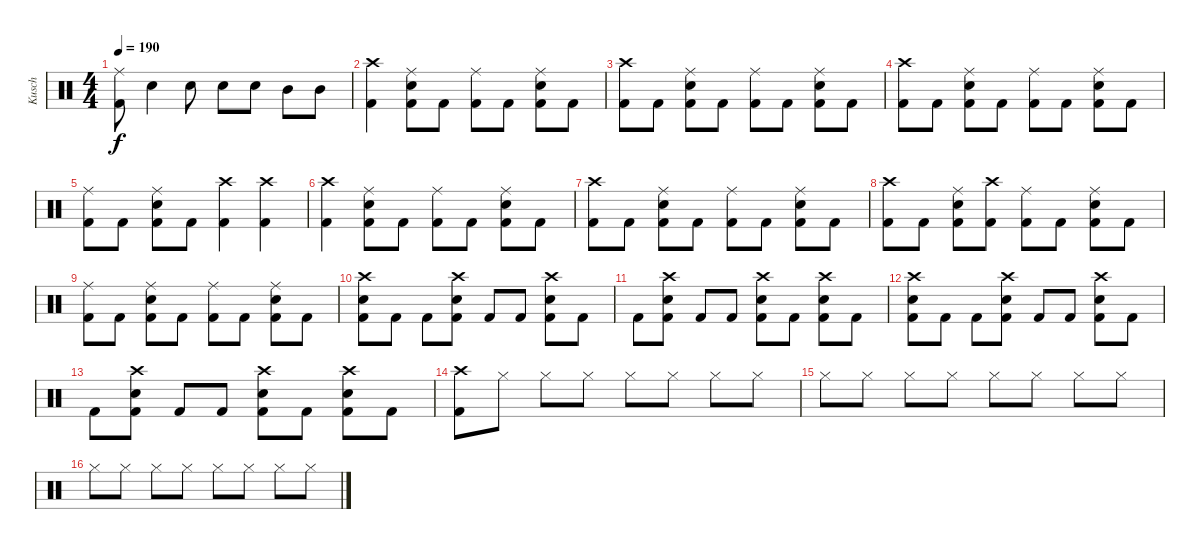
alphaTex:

\track ("Kusch" "Kusch") {instrument percussion}
\staff {score}
\articulation defaults
\ts (4 4)
\tempo 190
\clef neutral
\ks c
("Ride (middle)" "Kick (hit) 2").8{dy f} "Electric Snare (hit)".4 "Electric Snare (hit)".8 "Electric Snare (hit)".8 "Electric Snare (hit)".8 "Mid Tom (hit)".8 "Mid Tom (hit)".8 |
("Crash high (hit)" "Kick (hit) 2").4 ("Ride (middle)" "Electric Snare (hit)" "Kick (hit) 2").8 "Kick (hit) 2".8 ("Ride (middle)" "Kick (hit) 2").8 "Kick (hit) 2".8 ("Ride (middle)" "Electric Snare (hit)" "Kick (hit) 2").8 "Kick (hit) 2".8 |
("Crash high (hit)" "Kick (hit) 2").8 "Kick (hit) 2".8 ("Ride (middle)" "Electric Snare (hit)" "Kick (hit) 2").8 "Kick (hit) 2".8 ("Ride (middle)" "Kick (hit) 2").8 "Kick (hit) 2".8 ("Ride (middle)" "Electric Snare (hit)" "Kick (hit) 2").8 "Kick (hit) 2".8 |
("Crash high (hit)" "Kick (hit) 2").8 "Kick (hit) 2".8 ("Ride (middle)" "Electric Snare (hit)" "Kick (hit) 2").8 "Kick (hit) 2".8 ("Ride (middle)" "Kick (hit) 2").8 "Kick (hit) 2".8 ("Ride (middle)" "Electric Snare (hit)" "Kick (hit) 2").8 "Kick (hit) 2".8 |
("Ride (middle)" "Kick (hit) 2").8 "Kick (hit) 2".8 ("Ride (middle)" "Electric Snare (hit)" "Kick (hit) 2").8 "Kick (hit) 2".8 ("Crash high (hit)" "Kick (hit) 2").4 ("Crash high (hit)" "Kick (hit) 2").4 |
("Crash high (hit)" "Kick (hit) 2").4 ("Ride (middle)" "Electric Snare (hit)" "Kick (hit) 2").8 "Kick (hit) 2".8 ("Ride (middle)" "Kick (hit) 2").8 "Kick (hit) 2".8 ("Ride (middle)" "Electric Snare (hit)" "Kick (hit) 2").8 "Kick (hit) 2".8 |
("Crash high (hit)" "Kick (hit) 2").8 "Kick (hit) 2".8 ("Ride (middle)" "Electric Snare (hit)" "Kick (hit) 2").8 "Kick (hit) 2".8 ("Ride (middle)" "Kick (hit) 2").8 "Kick (hit) 2".8 ("Ride (middle)" "Electric Snare (hit)" "Kick (hit) 2").8 "Kick (hit) 2".8 |
("Crash high (hit)" "Kick (hit) 2").8 "Kick (hit) 2".8 ("Ride (middle)" "Electric Snare (hit)" "Kick (hit) 2").8 ("Crash high (hit)" "Kick (hit) 2").8 ("Ride (middle)" "Kick (hit) 2").8 "Kick (hit) 2".8 ("Ride (middle)" "Electric Snare (hit)" "Kick (hit) 2").8 "Kick (hit) 2".8 |
("Ride (middle)" "Kick (hit) 2").8 "Kick (hit) 2".8 ("Ride (middle)" "Electric Snare (hit)" "Kick (hit) 2").8 "Kick (hit) 2".8 ("Ride (middle)" "Kick (hit) 2").8 "Kick (hit) 2".8 ("Ride (middle)" "Electric Snare (hit)" "Kick (hit) 2").8 "Kick (hit) 2".8 |
("Crash high (hit)" "Electric Snare (hit)" "Kick (hit) 2").8 "Kick (hit) 2".8 "Kick (hit) 2".8 ("Crash high (hit)" "Electric Snare (hit)" "Kick (hit) 2").8 "Kick (hit) 2".8 "Kick (hit) 2".8 ("Crash high (hit)" "Electric Snare (hit)" "Kick (hit) 2").8 "Kick (hit) 2".8 |
"Kick (hit) 2".8 ("Crash high (hit)" "Electric Snare (hit)" "Kick (hit) 2").8 "Kick (hit) 2".8 "Kick (hit) 2".8 ("Crash high (hit)" "Electric Snare (hit)" "Kick (hit) 2").8 "Kick (hit) 2".8 ("Crash high (hit)" "Electric Snare (hit)" "Kick (hit) 2").8 "Kick (hit) 2".8 |
("Crash high (hit)" "Electric Snare (hit)" "Kick (hit) 2").8 "Kick (hit) 2".8 "Kick (hit) 2".8 ("Crash high (hit)" "Electric Snare (hit)" "Kick (hit) 2").8 "Kick (hit) 2".8 "Kick (hit) 2".8 ("Crash high (hit)" "Electric Snare (hit)" "Kick (hit) 2").8 "Kick (hit) 2".8 |
"Kick (hit) 2".8 ("Crash high (hit)" "Electric Snare (hit)" "Kick (hit) 2").8 "Kick (hit) 2".8 "Kick (hit) 2".8 ("Crash high (hit)" "Electric Snare (hit)" "Kick (hit) 2").8 "Kick (hit) 2".8 ("Crash high (hit)" "Electric Snare (hit)" "Kick (hit) 2").8 "Kick (hit) 2".8 |
("Crash high (hit)" "Kick (hit) 2").8 "Hi-Hat (closed)".8 "Hi-Hat (closed)".8 "Hi-Hat (closed)".8 "Hi-Hat (closed)".8 "Hi-Hat (closed)".8 "Hi-Hat (closed)".8 "Hi-Hat (closed)".8 |
"Hi-Hat (closed)".8 "Hi-Hat (closed)".8 "Hi-Hat (closed)".8 "Hi-Hat (closed)".8 "Hi-Hat (closed)".8 "Hi-Hat (closed)".8 "Hi-Hat (closed)".8 "Hi-Hat (closed)".8 |
"Hi-Hat (closed)".8 "Hi-Hat (closed)".8 "Hi-Hat (closed)".8 "Hi-Hat (closed)".8 "Hi-Hat (closed)".8 "Hi-Hat (closed)".8 "Hi-Hat (closed)".8 "Hi-Hat (closed)".8
